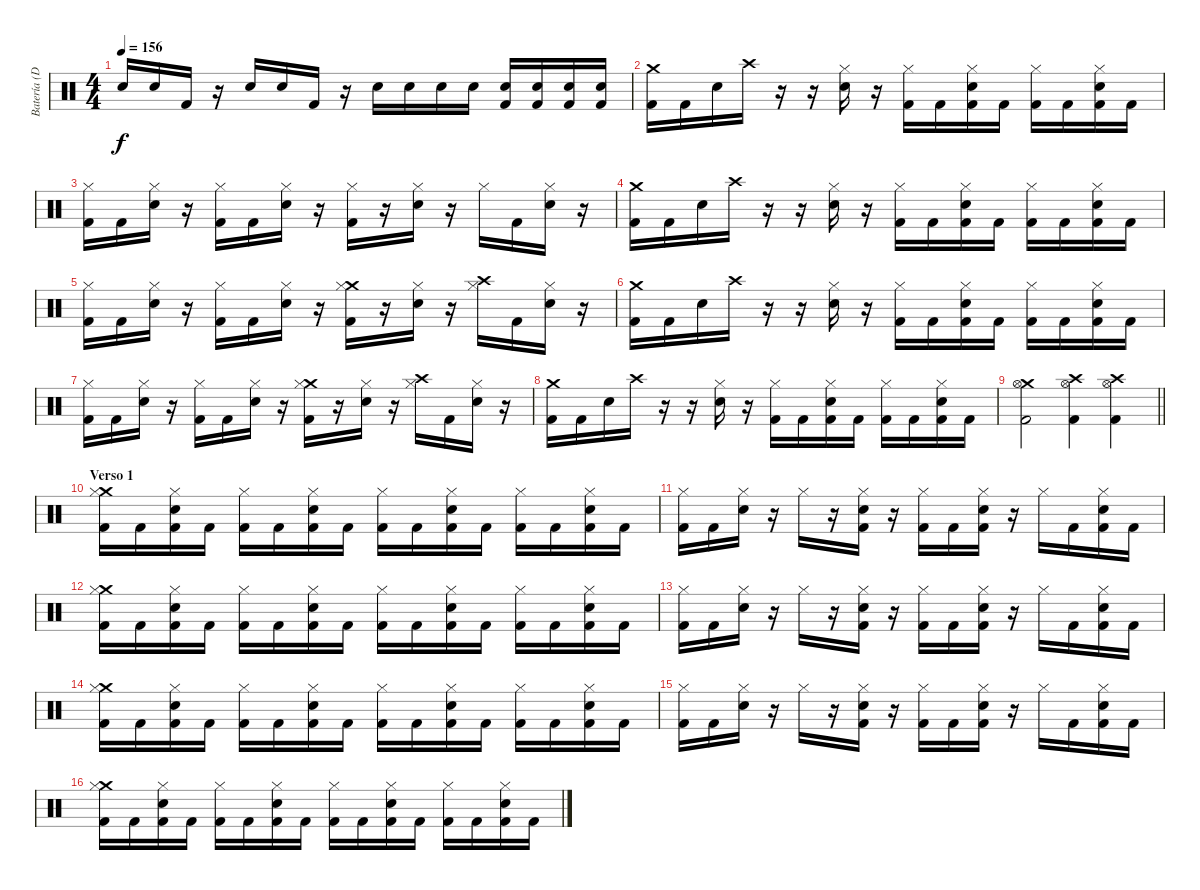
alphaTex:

\track ("Batería (Dani)" "Batería (D") {instrument percussion}
\staff {score}
\articulation defaults
\ts (4 4)
\tempo 156
\clef neutral
\ks c "Electric Snare (hit)".16{dy f} "Electric Snare (hit)".16 "Kick (hit) 2".16
r.16 "Electric Snare (hit)".16 "Electric Snare (hit)".16 "Kick (hit) 2".16 r.16 "Electric Snare (hit)".16 "Electric Snare (hit)".16 "Electric Snare (hit)".16 "Electric Snare (hit)".16 ("Electric Snare (hit)" "Kick (hit) 2").16 ("Electric Snare (hit)" "Kick (hit) 2").16 ("Electric Snare (hit)" "Kick (hit) 2").16 ("Electric Snare (hit)" "Kick (hit) 2").16 |
("Crash medium (hit)" "Kick (hit) 2").16 "Kick (hit) 2".16 "Electric Snare (hit)".16 "Crash high (hit)".16 r.16 r.16 ("Hi-Hat (closed)" "Electric Snare (hit)").16 r.16 ("Hi-Hat (closed)" "Kick (hit) 2").16 "Kick (hit) 2".16 ("Hi-Hat (closed)" "Electric Snare (hit)" "Kick (hit) 2").16 "Kick (hit) 2".16 ("Hi-Hat (closed)" "Kick (hit) 2").16 "Kick (hit) 2".16 ("Hi-Hat (closed)" "Electric Snare (hit)" "Kick (hit) 2").16 "Kick (hit) 2".16 |
("Hi-Hat (closed)" "Kick (hit) 2").16 "Kick (hit) 2".16 ("Hi-Hat (closed)" "Electric Snare (hit)").16 r.16 ("Hi-Hat (closed)" "Kick (hit) 2").16 "Kick (hit) 2".16 ("Hi-Hat (closed)" "Electric Snare (hit)").16 r.16 ("Hi-Hat (closed)" "Kick (hit) 2").16 r.16 ("Hi-Hat (closed)" "Electric Snare (hit)").16 r.16 "Hi-Hat (closed)".16 "Kick (hit) 2".16 ("Hi-Hat (closed)" "Electric Snare (hit)").16 r.16 |
("Crash medium (hit)" "Kick (hit) 2").16 "Kick (hit) 2".16 "Electric Snare (hit)".16 "Crash high (hit)".16 r.16 r.16 ("Hi-Hat (closed)" "Electric Snare (hit)").16 r.16 ("Hi-Hat (closed)" "Kick (hit) 2").16 "Kick (hit) 2".16 ("Hi-Hat (closed)" "Electric Snare (hit)" "Kick (hit) 2").16 "Kick (hit) 2".16 ("Hi-Hat (closed)" "Kick (hit) 2").16 "Kick (hit) 2".16 ("Hi-Hat (closed)" "Electric Snare (hit)" "Kick (hit) 2").16 "Kick (hit) 2".16 |
("Hi-Hat (closed)" "Kick (hit) 2").16 "Kick (hit) 2".16 ("Hi-Hat (closed)" "Electric Snare (hit)").16 r.16 ("Hi-Hat (closed)" "Kick (hit) 2").16 "Kick (hit) 2".16 ("Hi-Hat (closed)" "Electric Snare (hit)").16 r.16 ("Crash medium (hit)" "Hi-Hat (closed)" "Kick (hit) 2").16 r.16 ("Hi-Hat (closed)" "Electric Snare (hit)").16 r.16 ("Crash high (hit)" "Hi-Hat (closed)").16 "Kick (hit) 2".16 ("Hi-Hat (closed)" "Electric Snare (hit)").16 r.16 |
("Crash medium (hit)" "Kick (hit) 2").16 "Kick (hit) 2".16 "Electric Snare (hit)".16 "Crash high (hit)".16 r.16 r.16 ("Hi-Hat (closed)" "Electric Snare (hit)").16 r.16 ("Hi-Hat (closed)" "Kick (hit) 2").16 "Kick (hit) 2".16 ("Hi-Hat (closed)" "Electric Snare (hit)" "Kick (hit) 2").16 "Kick (hit) 2".16 ("Hi-Hat (closed)" "Kick (hit) 2").16 "Kick (hit) 2".16 ("Hi-Hat (closed)" "Electric Snare (hit)" "Kick (hit) 2").16 "Kick (hit) 2".16 |
("Hi-Hat (closed)" "Kick (hit) 2").16 "Kick (hit) 2".16 ("Hi-Hat (closed)" "Electric Snare (hit)").16 r.16 ("Hi-Hat (closed)" "Kick (hit) 2").16 "Kick (hit) 2".16 ("Hi-Hat (closed)" "Electric Snare (hit)").16 r.16 ("Crash medium (hit)" "Hi-Hat (closed)" "Kick (hit) 2").16 r.16 ("Hi-Hat (closed)" "Electric Snare (hit)").16 r.16 ("Crash high (hit)" "Hi-Hat (closed)").16 "Kick (hit) 2".16 ("Hi-Hat (closed)" "Electric Snare (hit)").16 r.16 |
("Crash medium (hit)" "Kick (hit) 2").16 "Kick (hit) 2".16 "Electric Snare (hit)".16 "Crash high (hit)".16 r.16 r.16 ("Hi-Hat (closed)" "Electric Snare (hit)").16 r.16 ("Hi-Hat (closed)" "Kick (hit) 2").16 "Kick (hit) 2".16 ("Hi-Hat (closed)" "Electric Snare (hit)" "Kick (hit) 2").16 "Kick (hit) 2".16 ("Hi-Hat (closed)" "Kick (hit) 2").16 "Kick (hit) 2".16 ("Hi-Hat (closed)" "Electric Snare (hit)" "Kick (hit) 2").16 "Kick (hit) 2".16 |
\barLineRight lightlight
("Crash medium (hit)" "Hi-Hat (open)" "Kick (hit) 2").2 ("Crash high (hit)" "Hi-Hat (open)" "Kick (hit) 2").4 ("Crash high (hit)" "Hi-Hat (open)" "Kick (hit) 2").4 |
\section ("" "Verso 1")
("Crash medium (hit)" "Hi-Hat (closed)" "Kick (hit) 2").16 "Kick (hit) 2".16 ("Hi-Hat (closed)" "Electric Snare (hit)" "Kick (hit) 2").16 "Kick (hit) 2".16 ("Hi-Hat (closed)" "Kick (hit) 2").16 "Kick (hit) 2".16 ("Hi-Hat (closed)" "Electric Snare (hit)" "Kick (hit) 2").16 "Kick (hit) 2".16 ("Hi-Hat (closed)" "Kick (hit) 2").16 "Kick (hit) 2".16 ("Hi-Hat (closed)" "Electric Snare (hit)" "Kick (hit) 2").16 "Kick (hit) 2".16 ("Hi-Hat (closed)" "Kick (hit) 2").16 "Kick (hit) 2".16 ("Hi-Hat (closed)" "Electric Snare (hit)" "Kick (hit) 2").16 "Kick (hit) 2".16 |
("Hi-Hat (closed)" "Kick (hit) 2").16 "Kick (hit) 2".16 ("Hi-Hat (closed)" "Electric Snare (hit)").16 r.16 "Hi-Hat (closed)".16 r.16 ("Hi-Hat (closed)" "Electric Snare (hit)" "Kick (hit) 2").16 r.16 ("Hi-Hat (closed)" "Kick (hit) 2").16 "Kick (hit) 2".16 ("Hi-Hat (closed)" "Electric Snare (hit)" "Kick (hit) 2").16 r.16 "Hi-Hat (closed)".16 "Kick (hit) 2".16 ("Hi-Hat (closed)" "Electric Snare (hit)" "Kick (hit) 2").16 "Kick (hit) 2".16 |
("Crash medium (hit)" "Hi-Hat (closed)" "Kick (hit) 2").16 "Kick (hit) 2".16 ("Hi-Hat (closed)" "Electric Snare (hit)" "Kick (hit) 2").16 "Kick (hit) 2".16 ("Hi-Hat (closed)" "Kick (hit) 2").16 "Kick (hit) 2".16 ("Hi-Hat (closed)" "Electric Snare (hit)" "Kick (hit) 2").16 "Kick (hit) 2".16 ("Hi-Hat (closed)" "Kick (hit) 2").16 "Kick (hit) 2".16 ("Hi-Hat (closed)" "Electric Snare (hit)" "Kick (hit) 2").16 "Kick (hit) 2".16 ("Hi-Hat (closed)" "Kick (hit) 2").16 "Kick (hit) 2".16 ("Hi-Hat (closed)" "Electric Snare (hit)" "Kick (hit) 2").16 "Kick (hit) 2".16 |
("Hi-Hat (closed)" "Kick (hit) 2").16 "Kick (hit) 2".16 ("Hi-Hat (closed)" "Electric Snare (hit)").16 r.16 "Hi-Hat (closed)".16 r.16 ("Hi-Hat (closed)" "Electric Snare (hit)" "Kick (hit) 2").16 r.16 ("Hi-Hat (closed)" "Kick (hit) 2").16 "Kick (hit) 2".16 ("Hi-Hat (closed)" "Electric Snare (hit)" "Kick (hit) 2").16 r.16 "Hi-Hat (closed)".16 "Kick (hit) 2".16 ("Hi-Hat (closed)" "Electric Snare (hit)" "Kick (hit) 2").16 "Kick (hit) 2".16 |
("Crash medium (hit)" "Hi-Hat (closed)" "Kick (hit) 2").16 "Kick (hit) 2".16 ("Hi-Hat (closed)" "Electric Snare (hit)" "Kick (hit) 2").16 "Kick (hit) 2".16 ("Hi-Hat (closed)" "Kick (hit) 2").16 "Kick (hit) 2".16 ("Hi-Hat (closed)" "Electric Snare (hit)" "Kick (hit) 2").16 "Kick (hit) 2".16 ("Hi-Hat (closed)" "Kick (hit) 2").16 "Kick (hit) 2".16 ("Hi-Hat (closed)" "Electric Snare (hit)" "Kick (hit) 2").16 "Kick (hit) 2".16 ("Hi-Hat (closed)" "Kick (hit) 2").16 "Kick (hit) 2".16 ("Hi-Hat (closed)" "Electric Snare (hit)" "Kick (hit) 2").16 "Kick (hit) 2".16 |
("Hi-Hat (closed)" "Kick (hit) 2").16 "Kick (hit) 2".16 ("Hi-Hat (closed)" "Electric Snare (hit)").16 r.16 "Hi-Hat (closed)".16 r.16 ("Hi-Hat (closed)" "Electric Snare (hit)" "Kick (hit) 2").16 r.16 ("Hi-Hat (closed)" "Kick (hit) 2").16 "Kick (hit) 2".16 ("Hi-Hat (closed)" "Electric Snare (hit)" "Kick (hit) 2").16 r.16 "Hi-Hat (closed)".16 "Kick (hit) 2".16 ("Hi-Hat (closed)" "Electric Snare (hit)" "Kick (hit) 2").16 "Kick (hit) 2".16 |
("Crash medium (hit)" "Hi-Hat (closed)" "Kick (hit) 2").16 "Kick (hit) 2".16 ("Hi-Hat (closed)" "Electric Snare (hit)" "Kick (hit) 2").16 "Kick (hit) 2".16 ("Hi-Hat (closed)" "Kick (hit) 2").16 "Kick (hit) 2".16 ("Hi-Hat (closed)" "Electric Snare (hit)" "Kick (hit) 2").16 "Kick (hit) 2".16 ("Hi-Hat (closed)" "Kick (hit) 2").16 "Kick (hit) 2".16 ("Hi-Hat (closed)" "Electric Snare (hit)" "Kick (hit) 2").16 "Kick (hit) 2".16 ("Hi-Hat (closed)" "Kick (hit) 2").16 "Kick (hit) 2".16 ("Hi-Hat (closed)" "Electric Snare (hit)" "Kick (hit) 2").16 "Kick (hit) 2".16
